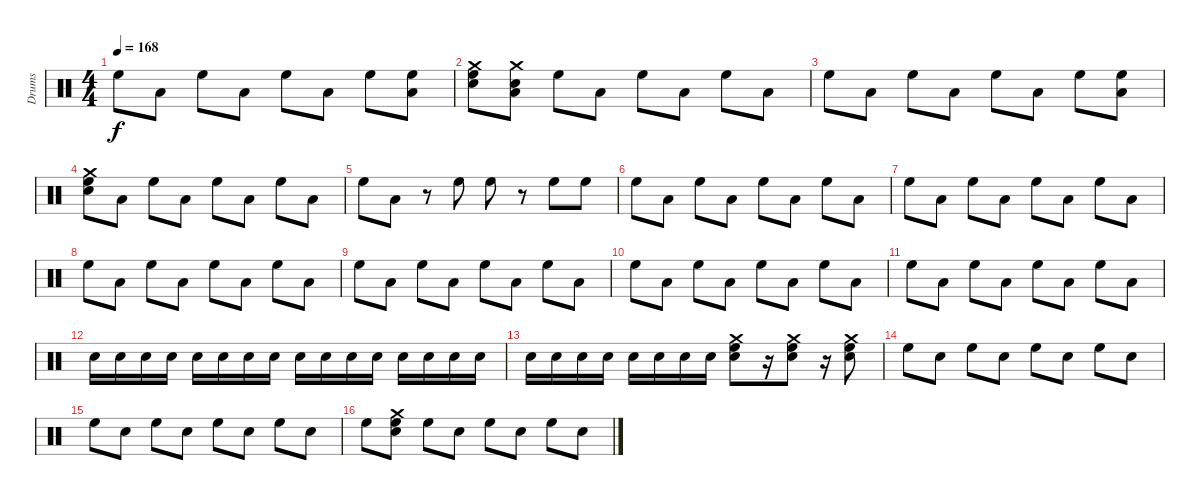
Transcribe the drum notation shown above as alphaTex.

\track ("Drums" "Drums") {instrument percussion}
\staff {score}
\articulation defaults
\ts (4 4)
\tempo 168
\clef neutral
\ks c "High Floor Tom (hit)".8{dy f} "Low Tom (hit)".8 "High Floor Tom (hit)".8 "Low Tom (hit)".8 "High Floor Tom (hit)".8 "Low Tom (hit)".8 "High Floor Tom (hit)".8
("High Floor Tom (hit)" "Low Tom (hit)").8 |
("Electric Snare (hit)" "Crash medium (hit)" "High Floor Tom (hit)").8 ("Crash medium (hit)" "Electric Snare (hit)" "Low Tom (hit)").8 "High Floor Tom (hit)".8 "Low Tom (hit)".8 "High Floor Tom (hit)".8 "Low Tom (hit)".8 "High Floor Tom (hit)".8 "Low Tom (hit)".8 |
"High Floor Tom (hit)".8 "Low Tom (hit)".8 "High Floor Tom (hit)".8 "Low Tom (hit)".8 "High Floor Tom (hit)".8 "Low Tom (hit)".8 "High Floor Tom (hit)".8 ("High Floor Tom (hit)" "Low Tom (hit)").8 |
("Electric Snare (hit)" "Crash medium (hit)" "High Floor Tom (hit)").8 "Low Tom (hit)".8 "High Floor Tom (hit)".8 "Low Tom (hit)".8 "High Floor Tom (hit)".8 "Low Tom (hit)".8 "High Floor Tom (hit)".8 "Low Tom (hit)".8 |
"High Floor Tom (hit)".8 "Low Tom (hit)".8 r.8 "High Floor Tom (hit)".8 "High Floor Tom (hit)".8 r.8 "High Floor Tom (hit)".8 "High Floor Tom (hit)".8 |
"High Floor Tom (hit)".8 "Low Tom (hit)".8 "High Floor Tom (hit)".8 "Low Tom (hit)".8 "High Floor Tom (hit)".8 "Low Tom (hit)".8 "High Floor Tom (hit)".8 "Low Tom (hit)".8 |
"High Floor Tom (hit)".8 "Low Tom (hit)".8 "High Floor Tom (hit)".8 "Low Tom (hit)".8 "High Floor Tom (hit)".8 "Low Tom (hit)".8 "High Floor Tom (hit)".8 "Low Tom (hit)".8 |
"High Floor Tom (hit)".8 "Low Tom (hit)".8 "High Floor Tom (hit)".8 "Low Tom (hit)".8 "High Floor Tom (hit)".8 "Low Tom (hit)".8 "High Floor Tom (hit)".8 "Low Tom (hit)".8 |
"High Floor Tom (hit)".8 "Low Tom (hit)".8 "High Floor Tom (hit)".8 "Low Tom (hit)".8 "High Floor Tom (hit)".8 "Low Tom (hit)".8 "High Floor Tom (hit)".8 "Low Tom (hit)".8 |
"High Floor Tom (hit)".8 "Low Tom (hit)".8 "High Floor Tom (hit)".8 "Low Tom (hit)".8 "High Floor Tom (hit)".8 "Low Tom (hit)".8 "High Floor Tom (hit)".8 "Low Tom (hit)".8 |
"High Floor Tom (hit)".8 "Low Tom (hit)".8 "High Floor Tom (hit)".8 "Low Tom (hit)".8 "High Floor Tom (hit)".8 "Low Tom (hit)".8 "High Floor Tom (hit)".8 "Low Tom (hit)".8 |
"Electric Snare (hit)".16 "Electric Snare (hit)".16 "Electric Snare (hit)".16 "Electric Snare (hit)".16 "Electric Snare (hit)".16 "Electric Snare (hit)".16 "Electric Snare (hit)".16 "Electric Snare (hit)".16 "Electric Snare (hit)".16 "Electric Snare (hit)".16 "Electric Snare (hit)".16 "Electric Snare (hit)".16 "Electric Snare (hit)".16 "Electric Snare (hit)".16 "Electric Snare (hit)".16 "Electric Snare (hit)".16 |
"Electric Snare (hit)".16 "Electric Snare (hit)".16 "Electric Snare (hit)".16 "Electric Snare (hit)".16 "Electric Snare (hit)".16 "Electric Snare (hit)".16 "Electric Snare (hit)".16 "Electric Snare (hit)".16 ("High Floor Tom (hit)" "Electric Snare (hit)" "Crash medium (hit)").8 r.16 ("High Floor Tom (hit)" "Electric Snare (hit)" "Crash medium (hit)").8 r.16 ("High Floor Tom (hit)" "Electric Snare (hit)" "Crash medium (hit)").8 |
"High Floor Tom (hit)".8 "Electric Snare (hit)".8 "High Floor Tom (hit)".8 "Electric Snare (hit)".8 "High Floor Tom (hit)".8 "Electric Snare (hit)".8 "High Floor Tom (hit)".8 "Electric Snare (hit)".8 |
"High Floor Tom (hit)".8 "Electric Snare (hit)".8 "High Floor Tom (hit)".8 "Electric Snare (hit)".8 "High Floor Tom (hit)".8 "Electric Snare (hit)".8 "High Floor Tom (hit)".8 "Electric Snare (hit)".8 |
"High Floor Tom (hit)".8 ("High Floor Tom (hit)" "Crash medium (hit)" "Electric Snare (hit)").8 "High Floor Tom (hit)".8 "Electric Snare (hit)".8 "High Floor Tom (hit)".8 "Electric Snare (hit)".8 "High Floor Tom (hit)".8 "Electric Snare (hit)".8
